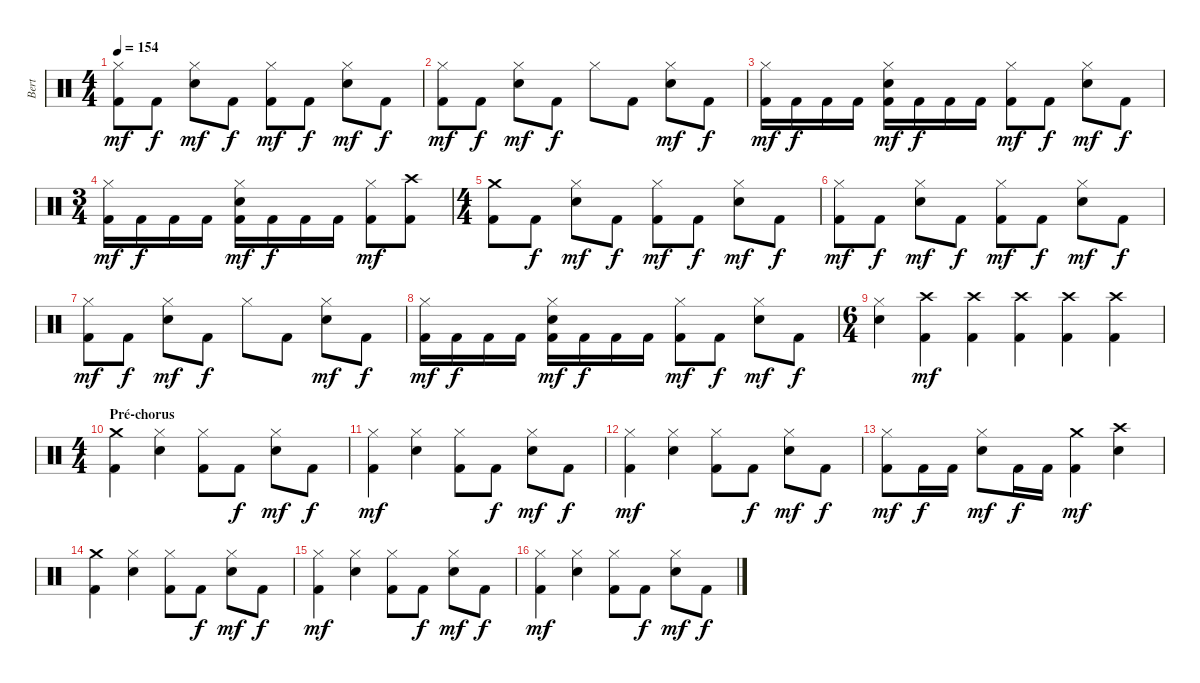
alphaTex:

\track ("Bert" "Bert") {instrument percussion}
\staff {score}
\articulation defaults
\ts (4 4)
\tempo 154
\clef neutral
\ks c
("Hi-Hat (closed)" "Kick (hit) 2").8{dy mf} "Kick (hit) 2".8{dy f} ("Hi-Hat (closed)" "Snare (hit) 2").8{dy mf} "Kick (hit) 2".8{dy f} ("Hi-Hat (closed)" "Kick (hit) 2").8{dy mf} "Kick (hit) 2".8{dy f} ("Hi-Hat (closed)" "Snare (hit) 2").8{dy mf} "Kick (hit) 2".8{dy f} |
("Hi-Hat (closed)" "Kick (hit) 2").8{dy mf} "Kick (hit) 2".8{dy f} ("Hi-Hat (closed)" "Snare (hit) 2").8{dy mf} "Kick (hit) 2".8{dy f} "Hi-Hat (closed)".8 "Kick (hit) 2".8 ("Hi-Hat (closed)" "Snare (hit) 2").8{dy mf} "Kick (hit) 2".8{dy f} |
("Hi-Hat (closed)" "Kick (hit) 2").16{dy mf} "Kick (hit) 2".16{dy f} "Kick (hit) 2".16 "Kick (hit) 2".16 ("Hi-Hat (closed)" "Snare (hit) 2" "Kick (hit) 2").16{dy mf} "Kick (hit) 2".16{dy f} "Kick (hit) 2".16 "Kick (hit) 2".16 ("Hi-Hat (closed)" "Kick (hit) 2").8{dy mf} "Kick (hit) 2".8{dy f} ("Hi-Hat (closed)" "Snare (hit) 2").8{dy mf} "Kick (hit) 2".8{dy f} |
\ts (3 4)
("Hi-Hat (closed)" "Kick (hit) 2").16{dy mf} "Kick (hit) 2".16{dy f} "Kick (hit) 2".16 "Kick (hit) 2".16 ("Hi-Hat (closed)" "Snare (hit) 2" "Kick (hit) 2").16{dy mf} "Kick (hit) 2".16{dy f} "Kick (hit) 2".16 "Kick (hit) 2".16 ("Hi-Hat (closed)" "Kick (hit) 2").8{dy mf} ("Crash high (hit)" "Kick (hit) 2").8 |
\ts (4 4)
("Crash medium (hit)" "Kick (hit) 2").8 "Kick (hit) 2".8{dy f} ("Hi-Hat (closed)" "Snare (hit) 2").8{dy mf} "Kick (hit) 2".8{dy f} ("Hi-Hat (closed)" "Kick (hit) 2").8{dy mf} "Kick (hit) 2".8{dy f} ("Hi-Hat (closed)" "Snare (hit) 2").8{dy mf} "Kick (hit) 2".8{dy f} |
("Hi-Hat (closed)" "Kick (hit) 2").8{dy mf} "Kick (hit) 2".8{dy f} ("Hi-Hat (closed)" "Snare (hit) 2").8{dy mf} "Kick (hit) 2".8{dy f} ("Hi-Hat (closed)" "Kick (hit) 2").8{dy mf} "Kick (hit) 2".8{dy f} ("Hi-Hat (closed)" "Snare (hit) 2").8{dy mf} "Kick (hit) 2".8{dy f} |
("Hi-Hat (closed)" "Kick (hit) 2").8{dy mf} "Kick (hit) 2".8{dy f} ("Hi-Hat (closed)" "Snare (hit) 2").8{dy mf} "Kick (hit) 2".8{dy f} "Hi-Hat (closed)".8 "Kick (hit) 2".8 ("Hi-Hat (closed)" "Snare (hit) 2").8{dy mf} "Kick (hit) 2".8{dy f} |
("Hi-Hat (closed)" "Kick (hit) 2").16{dy mf} "Kick (hit) 2".16{dy f} "Kick (hit) 2".16 "Kick (hit) 2".16 ("Hi-Hat (closed)" "Snare (hit) 2" "Kick (hit) 2").16{dy mf} "Kick (hit) 2".16{dy f} "Kick (hit) 2".16 "Kick (hit) 2".16 ("Hi-Hat (closed)" "Kick (hit) 2").8{dy mf} "Kick (hit) 2".8{dy f} ("Hi-Hat (closed)" "Snare (hit) 2").8{dy mf} "Kick (hit) 2".8{dy f} |
\ts (6 4)
("Hi-Hat (closed)" "Snare (hit) 2").4 ("Crash high (hit)" "Kick (hit) 2").4{dy mf} ("Crash high (hit)" "Kick (hit) 2").4 ("Crash high (hit)" "Kick (hit) 2").4 ("Crash high (hit)" "Kick (hit) 2").4 ("Crash high (hit)" "Kick (hit) 2").4 |
\ts (4 4)
\section ("" "Pré-chorus")
("Crash medium (hit)" "Kick (hit) 2").4 ("Hi-Hat (closed)" "Snare (hit) 2").4 ("Hi-Hat (closed)" "Kick (hit) 2").8 "Kick (hit) 2".8{dy f} ("Hi-Hat (closed)" "Snare (hit) 2").8{dy mf} "Kick (hit) 2".8{dy f} |
("Hi-Hat (closed)" "Kick (hit) 2").4{dy mf} ("Hi-Hat (closed)" "Snare (hit) 2").4 ("Hi-Hat (closed)" "Kick (hit) 2").8 "Kick (hit) 2".8{dy f} ("Hi-Hat (closed)" "Snare (hit) 2").8{dy mf} "Kick (hit) 2".8{dy f} |
("Hi-Hat (closed)" "Kick (hit) 2").4{dy mf} ("Hi-Hat (closed)" "Snare (hit) 2").4 ("Hi-Hat (closed)" "Kick (hit) 2").8 "Kick (hit) 2".8{dy f} ("Hi-Hat (closed)" "Snare (hit) 2").8{dy mf} "Kick (hit) 2".8{dy f} |
("Hi-Hat (closed)" "Kick (hit) 2").8{dy mf} "Kick (hit) 2".16{dy f} "Kick (hit) 2".16 ("Hi-Hat (closed)" "Snare (hit) 2").8{dy mf} "Kick (hit) 2".16{dy f} "Kick (hit) 2".16 ("Crash medium (hit)" "Kick (hit) 2").4{dy mf} ("Crash high (hit)" "Snare (hit) 2").4 |
("Crash medium (hit)" "Kick (hit) 2").4 ("Hi-Hat (closed)" "Snare (hit) 2").4 ("Hi-Hat (closed)" "Kick (hit) 2").8 "Kick (hit) 2".8{dy f} ("Hi-Hat (closed)" "Snare (hit) 2").8{dy mf} "Kick (hit) 2".8{dy f} |
("Hi-Hat (closed)" "Kick (hit) 2").4{dy mf} ("Hi-Hat (closed)" "Snare (hit) 2").4 ("Hi-Hat (closed)" "Kick (hit) 2").8 "Kick (hit) 2".8{dy f} ("Hi-Hat (closed)" "Snare (hit) 2").8{dy mf} "Kick (hit) 2".8{dy f} |
("Hi-Hat (closed)" "Kick (hit) 2").4{dy mf} ("Hi-Hat (closed)" "Snare (hit) 2").4 ("Hi-Hat (closed)" "Kick (hit) 2").8 "Kick (hit) 2".8{dy f} ("Hi-Hat (closed)" "Snare (hit) 2").8{dy mf} "Kick (hit) 2".8{dy f}
